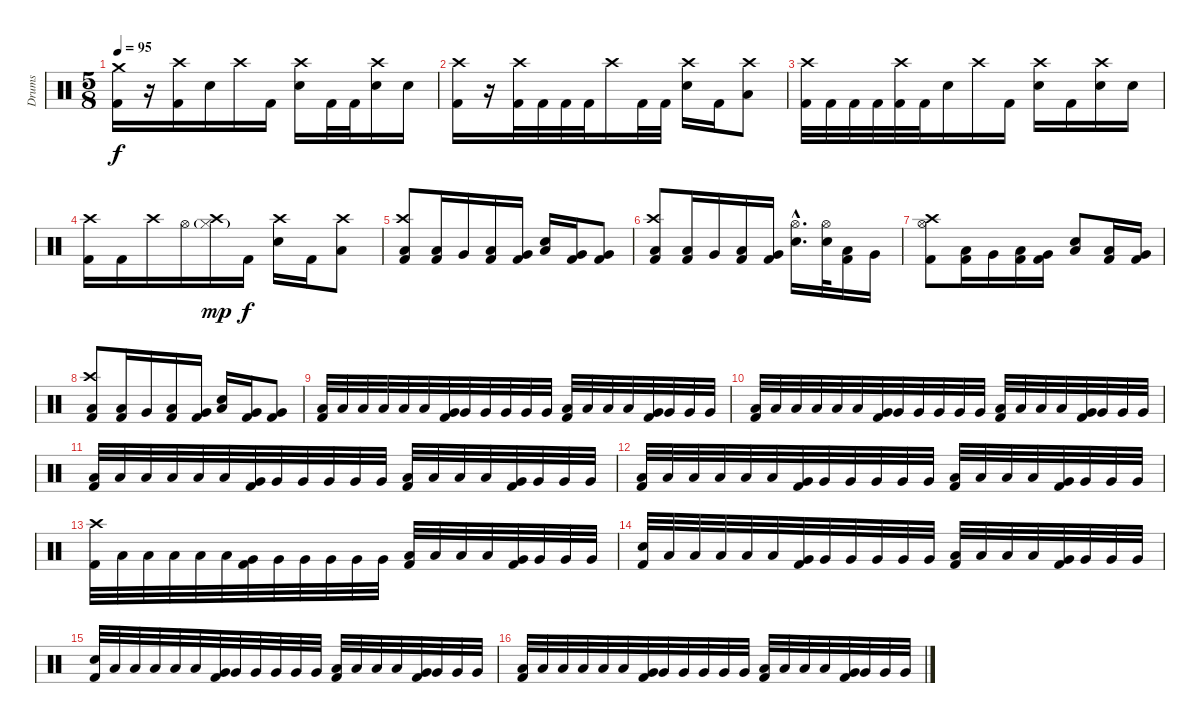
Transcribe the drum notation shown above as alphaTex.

\track ("Drums" "Drums") {instrument percussion}
\staff {score}
\articulation defaults
\ts (5 8)
\tempo 95
\clef neutral
\ks c
("Crash medium (hit)" "Kick (hit) 2").16{dy f} r.16 ("Crash high (hit)" "Kick (hit) 2").16 "Snare (hit) 2".16 "Crash high (hit)".16 "Kick (hit) 2".16 ("Crash high (hit)" "Snare (hit) 2").16 "Kick (hit) 2".32 "Kick (hit) 2".32 ("Crash high (hit)" "Snare (hit) 2").16 "Snare (hit) 2".16 |
("Crash high (hit)" "Kick (hit) 2").16 r.16 ("Crash high (hit)" "Kick (hit) 2").32 "Kick (hit) 2".32 "Kick (hit) 2".32 "Kick (hit) 2".32 "Crash high (hit)".16 "Kick (hit) 2".32 "Kick (hit) 2".32 ("Crash high (hit)" "Snare (hit) 2").16 "Kick (hit) 2".16 ("Crash high (hit)" "Low Tom (hit)").8 |
("Crash high (hit)" "Kick (hit) 2").32 "Kick (hit) 2".32 "Kick (hit) 2".32 "Kick (hit) 2".32 ("Crash high (hit)" "Kick (hit) 2").32 "Kick (hit) 2".32 "Snare (hit) 2".16 "Crash high (hit)".16 "Kick (hit) 2".16 ("Crash high (hit)" "Snare (hit) 2").16 "Kick (hit) 2".16 ("Crash high (hit)" "Snare (hit) 2").16 "Snare (hit) 2".16 |
("Crash high (hit)" "Kick (hit) 2").16 "Kick (hit) 2".16 "Crash high (hit)".16 "Hi-Hat (open)".16 ("Crash high (hit)" "Hi-Hat (closed)"{g}).16{dy mp} "Kick (hit) 2".16{dy f} ("Crash high (hit)" "Snare (hit) 2").16 "Kick (hit) 2".16 ("Crash high (hit)" "Low Tom (hit)").8 |
("Crash high (hit)" "Low Tom (hit)" "Kick (hit) 2").8 ("Low Tom (hit)" "Kick (hit) 2").16 "Very Low Tom (hit)".16 ("Low Tom (hit)" "Kick (hit) 2").16 ("Very Low Tom (hit)" "Kick (hit) 2").16 ("Low Tom (hit)" "Snare (hit) 2").16 ("Very Low Tom (hit)" "Kick (hit) 2").16 ("Very Low Tom (hit)" "Kick (hit) 2").8 |
("Crash high (hit)" "Low Tom (hit)" "Kick (hit) 2").8 ("Low Tom (hit)" "Kick (hit) 2").16 "Very Low Tom (hit)".16 ("Low Tom (hit)" "Kick (hit) 2").16 ("Very Low Tom (hit)" "Kick (hit) 2").16 ("Hi-Hat (open)"{hac} "Snare (hit) 2"{hac}).16{d} ("Hi-Hat (open)" "Snare (hit) 2").32 ("Low Tom (hit)" "Kick (hit) 2").16 "Very Low Tom (hit)".16 |
("Crash high (hit)" "Hi-Hat (open)" "Kick (hit) 2").8 ("Low Tom (hit)" "Kick (hit) 2").16 "Very Low Tom (hit)".16 ("Low Tom (hit)" "Kick (hit) 2").16 ("Very Low Tom (hit)" "Kick (hit) 2").16 ("Low Tom (hit)" "Snare (hit) 2").8 ("Low Tom (hit)" "Kick (hit) 2").16 ("Very Low Tom (hit)" "Kick (hit) 2").16 |
("Crash high (hit)" "Low Tom (hit)" "Kick (hit) 2").8 ("Low Tom (hit)" "Kick (hit) 2").16 "Very Low Tom (hit)".16 ("Low Tom (hit)" "Kick (hit) 2").16 ("Very Low Tom (hit)" "Kick (hit) 2").16 ("Low Tom (hit)" "Snare (hit) 2").16 ("Very Low Tom (hit)" "Kick (hit) 2").16 ("Very Low Tom (hit)" "Kick (hit) 2").8 |
("Low Tom (hit)" "Kick (hit) 2").32 "Low Tom (hit)".32 "Low Tom (hit)".32 "Low Tom (hit)".32 "Low Tom (hit)".32 "Low Tom (hit)".32 ("Very Low Tom (hit)" "Kick (hit) 2").32 "Very Low Tom (hit)".32 "Very Low Tom (hit)".32 "Very Low Tom (hit)".32 "Very Low Tom (hit)".32 "Very Low Tom (hit)".32 ("Low Tom (hit)" "Kick (hit) 2").32 "Low Tom (hit)".32 "Low Tom (hit)".32 "Low Tom (hit)".32 ("Very Low Tom (hit)" "Kick (hit) 2").32 "Very Low Tom (hit)".32 "Very Low Tom (hit)".32 "Very Low Tom (hit)".32 |
("Low Tom (hit)" "Kick (hit) 2").32 "Low Tom (hit)".32 "Low Tom (hit)".32 "Low Tom (hit)".32 "Low Tom (hit)".32 "Low Tom (hit)".32 ("Very Low Tom (hit)" "Kick (hit) 2").32 "Very Low Tom (hit)".32 "Very Low Tom (hit)".32 "Very Low Tom (hit)".32 "Very Low Tom (hit)".32 "Very Low Tom (hit)".32 ("Low Tom (hit)" "Kick (hit) 2").32 "Low Tom (hit)".32 "Low Tom (hit)".32 "Low Tom (hit)".32 ("Very Low Tom (hit)" "Kick (hit) 2").32 "Very Low Tom (hit)".32 "Very Low Tom (hit)".32 "Very Low Tom (hit)".32 |
("Low Tom (hit)" "Kick (hit) 2").32 "Low Tom (hit)".32 "Low Tom (hit)".32 "Low Tom (hit)".32 "Low Tom (hit)".32 "Low Tom (hit)".32 ("Very Low Tom (hit)" "Kick (hit) 2").32 "Very Low Tom (hit)".32 "Very Low Tom (hit)".32 "Very Low Tom (hit)".32 "Very Low Tom (hit)".32 "Very Low Tom (hit)".32 ("Low Tom (hit)" "Kick (hit) 2").32 "Low Tom (hit)".32 "Low Tom (hit)".32 "Low Tom (hit)".32 ("Very Low Tom (hit)" "Kick (hit) 2").32 "Very Low Tom (hit)".32 "Very Low Tom (hit)".32 "Very Low Tom (hit)".32 |
("Low Tom (hit)" "Kick (hit) 2").32 "Low Tom (hit)".32 "Low Tom (hit)".32 "Low Tom (hit)".32 "Low Tom (hit)".32 "Low Tom (hit)".32 ("Very Low Tom (hit)" "Kick (hit) 2").32 "Very Low Tom (hit)".32 "Very Low Tom (hit)".32 "Very Low Tom (hit)".32 "Very Low Tom (hit)".32 "Very Low Tom (hit)".32 ("Low Tom (hit)" "Kick (hit) 2").32 "Low Tom (hit)".32 "Low Tom (hit)".32 "Low Tom (hit)".32 ("Very Low Tom (hit)" "Kick (hit) 2").32 "Very Low Tom (hit)".32 "Very Low Tom (hit)".32 "Very Low Tom (hit)".32 |
("Crash high (hit)" "Kick (hit) 2").32 "Low Tom (hit)".32 "Low Tom (hit)".32 "Low Tom (hit)".32 "Low Tom (hit)".32 "Low Tom (hit)".32 ("Very Low Tom (hit)" "Kick (hit) 2").32 "Very Low Tom (hit)".32 "Very Low Tom (hit)".32 "Very Low Tom (hit)".32 "Very Low Tom (hit)".32 "Very Low Tom (hit)".32 ("Low Tom (hit)" "Kick (hit) 2").32 "Low Tom (hit)".32 "Low Tom (hit)".32 "Low Tom (hit)".32 ("Very Low Tom (hit)" "Kick (hit) 2").32 "Very Low Tom (hit)".32 "Very Low Tom (hit)".32 "Very Low Tom (hit)".32 |
("Snare (hit) 2" "Kick (hit) 2").32 "Low Tom (hit)".32 "Low Tom (hit)".32 "Low Tom (hit)".32 "Low Tom (hit)".32 "Low Tom (hit)".32 ("Very Low Tom (hit)" "Kick (hit) 2").32 "Very Low Tom (hit)".32 "Very Low Tom (hit)".32 "Very Low Tom (hit)".32 "Very Low Tom (hit)".32 "Very Low Tom (hit)".32 ("Low Tom (hit)" "Kick (hit) 2").32 "Low Tom (hit)".32 "Low Tom (hit)".32 "Low Tom (hit)".32 ("Very Low Tom (hit)" "Kick (hit) 2").32 "Very Low Tom (hit)".32 "Very Low Tom (hit)".32 "Very Low Tom (hit)".32 |
("Snare (hit) 2" "Kick (hit) 2").32 "Low Tom (hit)".32 "Low Tom (hit)".32 "Low Tom (hit)".32 "Low Tom (hit)".32 "Low Tom (hit)".32 ("Very Low Tom (hit)" "Kick (hit) 2").32 "Very Low Tom (hit)".32 "Very Low Tom (hit)".32 "Very Low Tom (hit)".32 "Very Low Tom (hit)".32 "Very Low Tom (hit)".32 ("Low Tom (hit)" "Kick (hit) 2").32 "Low Tom (hit)".32 "Low Tom (hit)".32 "Low Tom (hit)".32 ("Very Low Tom (hit)" "Kick (hit) 2").32 "Very Low Tom (hit)".32 "Very Low Tom (hit)".32 "Very Low Tom (hit)".32 |
("Low Tom (hit)" "Kick (hit) 2").32 "Low Tom (hit)".32 "Low Tom (hit)".32 "Low Tom (hit)".32 "Low Tom (hit)".32 "Low Tom (hit)".32 ("Very Low Tom (hit)" "Kick (hit) 2").32 "Very Low Tom (hit)".32 "Very Low Tom (hit)".32 "Very Low Tom (hit)".32 "Very Low Tom (hit)".32 "Very Low Tom (hit)".32 ("Low Tom (hit)" "Kick (hit) 2").32 "Low Tom (hit)".32 "Low Tom (hit)".32 "Low Tom (hit)".32 ("Very Low Tom (hit)" "Kick (hit) 2").32 "Very Low Tom (hit)".32 "Very Low Tom (hit)".32 "Very Low Tom (hit)".32
